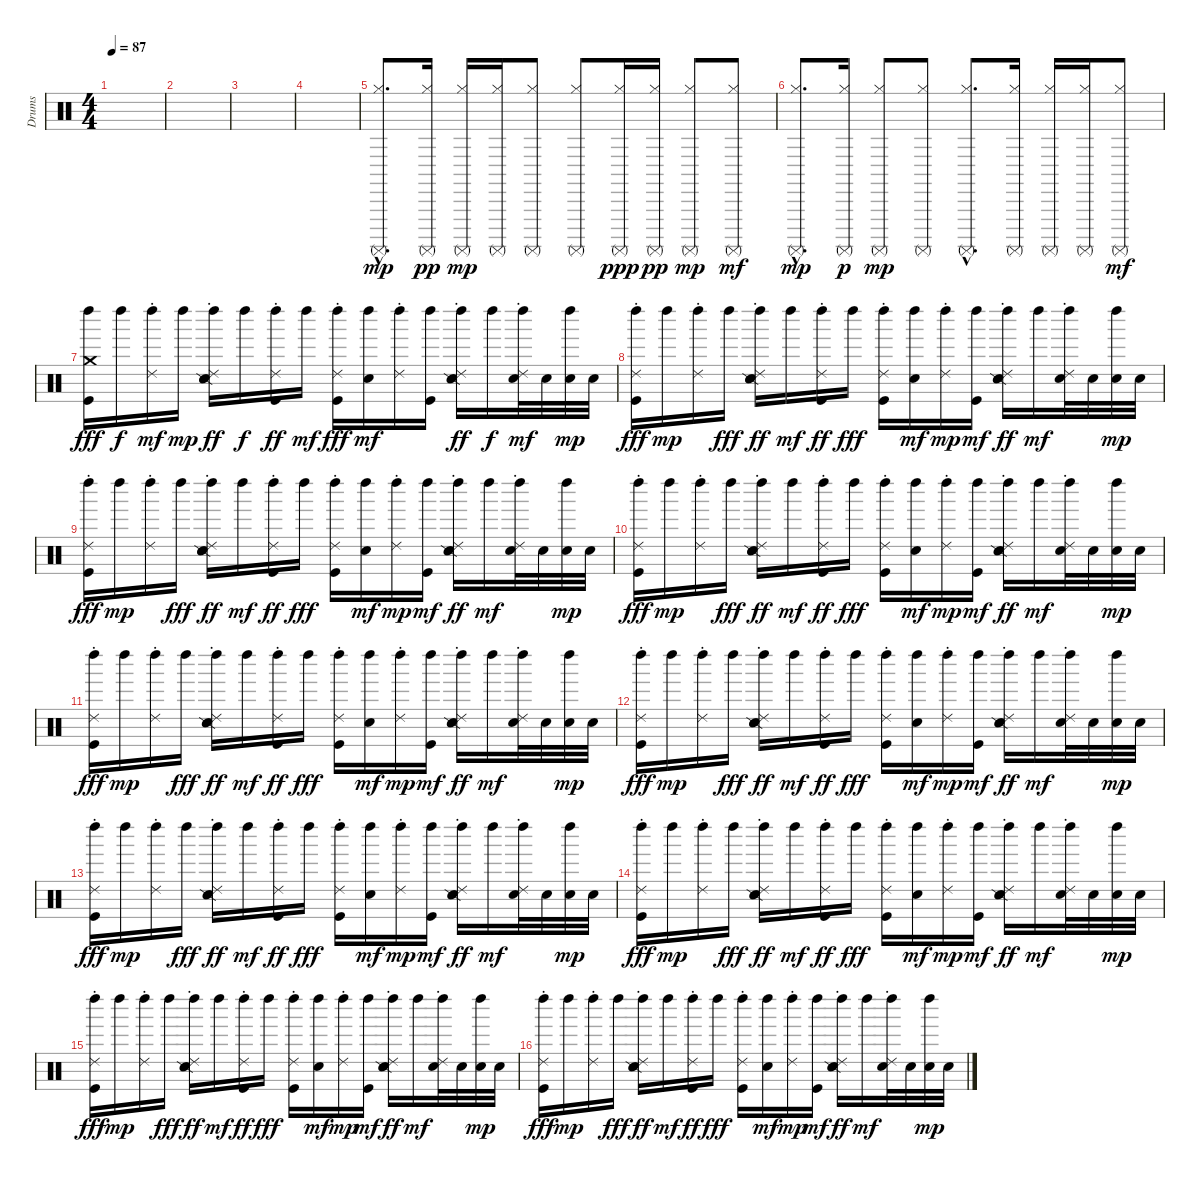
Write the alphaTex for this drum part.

\track ("Drums" "Drums") {instrument percussion}
\staff {score}
\articulation defaults
\ts (4 4)
\tempo 87
\clef neutral
\ks c
|
|
|
|
("Hi-Hat (closed)"{hac} "Surdo (mute)"{hac}).8{d dy mp} ("Hi-Hat (closed)" "Surdo (mute)").16{dy pp} ("Hi-Hat (closed)" "Surdo (mute)").16{dy mp} ("Hi-Hat (closed)" "Surdo (mute)").16 ("Hi-Hat (closed)" "Surdo (mute)").8 ("Hi-Hat (closed)" "Surdo (mute)").8 ("Hi-Hat (closed)" "Surdo (mute)").16{dy ppp} ("Hi-Hat (closed)" "Surdo (mute)").16{dy pp} ("Hi-Hat (closed)" "Surdo (mute)").8{dy mp} ("Hi-Hat (closed)" "Surdo (mute)").8{dy mf} |
("Hi-Hat (closed)"{hac} "Surdo (mute)"{hac}).8{d dy mp} ("Hi-Hat (closed)" "Surdo (mute)").16{dy p} ("Hi-Hat (closed)" "Surdo (mute)").8{dy mp} ("Hi-Hat (closed)" "Surdo (mute)").8 ("Hi-Hat (closed)"{hac} "Surdo (mute)"{hac}).8{d} ("Hi-Hat (closed)" "Surdo (mute)").16 ("Hi-Hat (closed)" "Surdo (mute)").16 ("Hi-Hat (closed)" "Surdo (mute)").16 ("Hi-Hat (closed)" "Surdo (mute)").8{dy mf} |
("Left Maraca (hit)" "Crash medium (hit)" "Kick (hit)").16{dy fff balance 11} "Left Maraca (hit)".16{dy f} ("Left Maraca (hit)" "Ride (choke) 2").16{dy mf} "Left Maraca (hit)".16{dy mp} ("Left Maraca (hit)" "Ride (choke) 2" "Snare (side stick) 2" "Electric Snare (hit)").16{dy ff} "Left Maraca (hit)".16{dy f} ("Left Maraca (hit)" "Ride (choke) 2" "Kick (hit)").16{dy ff} "Left Maraca (hit)".16{dy mf} ("Left Maraca (hit)" "Ride (choke) 2" "Kick (hit)").16{dy fff} ("Left Maraca (hit)" "Electric Snare (hit)").16{dy mf} ("Left Maraca (hit)" "Ride (choke) 2").16 ("Left Maraca (hit)" "Kick (hit)").16 ("Left Maraca (hit)" "Ride (choke) 2" "Snare (side stick) 2" "Electric Snare (hit)").16{dy ff} "Left Maraca (hit)".16{dy f} ("Left Maraca (hit)" "Ride (choke) 2" "Snare (hit) 2").32{dy mf} "Electric Snare (hit)".32 ("Left Maraca (hit)" "Snare (hit) 2").32{dy mp} "Electric Snare (hit)".32 |
("Left Maraca (hit)" "Ride (choke) 2" "Kick (hit)").16{dy fff} "Left Maraca (hit)".16{dy mp} ("Left Maraca (hit)" "Ride (choke) 2").16 "Left Maraca (hit)".16{dy fff} ("Left Maraca (hit)" "Ride (choke) 2" "Snare (side stick) 2" "Electric Snare (hit)").16{dy ff} "Left Maraca (hit)".16{dy mf} ("Left Maraca (hit)" "Ride (choke) 2" "Kick (hit)").16{dy ff} "Left Maraca (hit)".16{dy fff} ("Left Maraca (hit)" "Ride (choke) 2" "Kick (hit)").16 ("Left Maraca (hit)" "Electric Snare (hit)").16{dy mf} ("Left Maraca (hit)" "Ride (choke) 2").16{dy mp} ("Left Maraca (hit)" "Kick (hit)").16{dy mf} ("Left Maraca (hit)" "Ride (choke) 2" "Snare (side stick) 2" "Electric Snare (hit)").16{dy ff} "Left Maraca (hit)".16{dy mf} ("Left Maraca (hit)" "Ride (choke) 2" "Snare (hit) 2").32 "Electric Snare (hit)".32 ("Left Maraca (hit)" "Snare (hit) 2").32{dy mp} "Electric Snare (hit)".32 |
("Left Maraca (hit)" "Ride (choke) 2" "Kick (hit)").16{dy fff} "Left Maraca (hit)".16{dy mp} ("Left Maraca (hit)" "Ride (choke) 2").16 "Left Maraca (hit)".16{dy fff} ("Left Maraca (hit)" "Ride (choke) 2" "Snare (side stick) 2" "Electric Snare (hit)").16{dy ff} "Left Maraca (hit)".16{dy mf} ("Left Maraca (hit)" "Ride (choke) 2" "Kick (hit)").16{dy ff} "Left Maraca (hit)".16{dy fff} ("Left Maraca (hit)" "Ride (choke) 2" "Kick (hit)").16 ("Left Maraca (hit)" "Electric Snare (hit)").16{dy mf} ("Left Maraca (hit)" "Ride (choke) 2").16{dy mp} ("Left Maraca (hit)" "Kick (hit)").16{dy mf} ("Left Maraca (hit)" "Ride (choke) 2" "Snare (side stick) 2" "Electric Snare (hit)").16{dy ff} "Left Maraca (hit)".16{dy mf} ("Left Maraca (hit)" "Ride (choke) 2" "Snare (hit) 2").32 "Electric Snare (hit)".32 ("Left Maraca (hit)" "Snare (hit) 2").32{dy mp} "Electric Snare (hit)".32 |
("Left Maraca (hit)" "Ride (choke) 2" "Kick (hit)").16{dy fff} "Left Maraca (hit)".16{dy mp} ("Left Maraca (hit)" "Ride (choke) 2").16 "Left Maraca (hit)".16{dy fff} ("Left Maraca (hit)" "Ride (choke) 2" "Snare (side stick) 2" "Electric Snare (hit)").16{dy ff} "Left Maraca (hit)".16{dy mf} ("Left Maraca (hit)" "Ride (choke) 2" "Kick (hit)").16{dy ff} "Left Maraca (hit)".16{dy fff} ("Left Maraca (hit)" "Ride (choke) 2" "Kick (hit)").16 ("Left Maraca (hit)" "Electric Snare (hit)").16{dy mf} ("Left Maraca (hit)" "Ride (choke) 2").16{dy mp} ("Left Maraca (hit)" "Kick (hit)").16{dy mf} ("Left Maraca (hit)" "Ride (choke) 2" "Snare (side stick) 2" "Electric Snare (hit)").16{dy ff} "Left Maraca (hit)".16{dy mf} ("Left Maraca (hit)" "Ride (choke) 2" "Snare (hit) 2").32 "Electric Snare (hit)".32 ("Left Maraca (hit)" "Snare (hit) 2").32{dy mp} "Electric Snare (hit)".32 |
("Left Maraca (hit)" "Ride (choke) 2" "Kick (hit)").16{dy fff} "Left Maraca (hit)".16{dy mp} ("Left Maraca (hit)" "Ride (choke) 2").16 "Left Maraca (hit)".16{dy fff} ("Left Maraca (hit)" "Ride (choke) 2" "Snare (side stick) 2" "Electric Snare (hit)").16{dy ff} "Left Maraca (hit)".16{dy mf} ("Left Maraca (hit)" "Ride (choke) 2" "Kick (hit)").16{dy ff} "Left Maraca (hit)".16{dy fff} ("Left Maraca (hit)" "Ride (choke) 2" "Kick (hit)").16 ("Left Maraca (hit)" "Electric Snare (hit)").16{dy mf} ("Left Maraca (hit)" "Ride (choke) 2").16{dy mp} ("Left Maraca (hit)" "Kick (hit)").16{dy mf} ("Left Maraca (hit)" "Ride (choke) 2" "Snare (side stick) 2" "Electric Snare (hit)").16{dy ff} "Left Maraca (hit)".16{dy mf} ("Left Maraca (hit)" "Ride (choke) 2" "Snare (hit) 2").32 "Electric Snare (hit)".32 ("Left Maraca (hit)" "Snare (hit) 2").32{dy mp} "Electric Snare (hit)".32 |
("Left Maraca (hit)" "Ride (choke) 2" "Kick (hit)").16{dy fff} "Left Maraca (hit)".16{dy mp} ("Left Maraca (hit)" "Ride (choke) 2").16 "Left Maraca (hit)".16{dy fff} ("Left Maraca (hit)" "Ride (choke) 2" "Snare (side stick) 2" "Electric Snare (hit)").16{dy ff} "Left Maraca (hit)".16{dy mf} ("Left Maraca (hit)" "Ride (choke) 2" "Kick (hit)").16{dy ff} "Left Maraca (hit)".16{dy fff} ("Left Maraca (hit)" "Ride (choke) 2" "Kick (hit)").16 ("Left Maraca (hit)" "Electric Snare (hit)").16{dy mf} ("Left Maraca (hit)" "Ride (choke) 2").16{dy mp} ("Left Maraca (hit)" "Kick (hit)").16{dy mf} ("Left Maraca (hit)" "Ride (choke) 2" "Snare (side stick) 2" "Electric Snare (hit)").16{dy ff} "Left Maraca (hit)".16{dy mf} ("Left Maraca (hit)" "Ride (choke) 2" "Snare (hit) 2").32 "Electric Snare (hit)".32 ("Left Maraca (hit)" "Snare (hit) 2").32{dy mp} "Electric Snare (hit)".32 |
("Left Maraca (hit)" "Ride (choke) 2" "Kick (hit)").16{dy fff} "Left Maraca (hit)".16{dy mp} ("Left Maraca (hit)" "Ride (choke) 2").16 "Left Maraca (hit)".16{dy fff} ("Left Maraca (hit)" "Ride (choke) 2" "Snare (side stick) 2" "Electric Snare (hit)").16{dy ff} "Left Maraca (hit)".16{dy mf} ("Left Maraca (hit)" "Ride (choke) 2" "Kick (hit)").16{dy ff} "Left Maraca (hit)".16{dy fff} ("Left Maraca (hit)" "Ride (choke) 2" "Kick (hit)").16 ("Left Maraca (hit)" "Electric Snare (hit)").16{dy mf} ("Left Maraca (hit)" "Ride (choke) 2").16{dy mp} ("Left Maraca (hit)" "Kick (hit)").16{dy mf} ("Left Maraca (hit)" "Ride (choke) 2" "Snare (side stick) 2" "Electric Snare (hit)").16{dy ff} "Left Maraca (hit)".16{dy mf} ("Left Maraca (hit)" "Ride (choke) 2" "Snare (hit) 2").32 "Electric Snare (hit)".32 ("Left Maraca (hit)" "Snare (hit) 2").32{dy mp} "Electric Snare (hit)".32 |
("Left Maraca (hit)" "Ride (choke) 2" "Kick (hit)").16{dy fff} "Left Maraca (hit)".16{dy mp} ("Left Maraca (hit)" "Ride (choke) 2").16 "Left Maraca (hit)".16{dy fff} ("Left Maraca (hit)" "Ride (choke) 2" "Snare (side stick) 2" "Electric Snare (hit)").16{dy ff} "Left Maraca (hit)".16{dy mf} ("Left Maraca (hit)" "Ride (choke) 2" "Kick (hit)").16{dy ff} "Left Maraca (hit)".16{dy fff} ("Left Maraca (hit)" "Ride (choke) 2" "Kick (hit)").16 ("Left Maraca (hit)" "Electric Snare (hit)").16{dy mf} ("Left Maraca (hit)" "Ride (choke) 2").16{dy mp} ("Left Maraca (hit)" "Kick (hit)").16{dy mf} ("Left Maraca (hit)" "Ride (choke) 2" "Snare (side stick) 2" "Electric Snare (hit)").16{dy ff} "Left Maraca (hit)".16{dy mf} ("Left Maraca (hit)" "Ride (choke) 2" "Snare (hit) 2").32 "Electric Snare (hit)".32 ("Left Maraca (hit)" "Snare (hit) 2").32{dy mp} "Electric Snare (hit)".32 |
("Left Maraca (hit)" "Ride (choke) 2" "Kick (hit)").16{dy fff} "Left Maraca (hit)".16{dy mp} ("Left Maraca (hit)" "Ride (choke) 2").16 "Left Maraca (hit)".16{dy fff} ("Left Maraca (hit)" "Ride (choke) 2" "Snare (side stick) 2" "Electric Snare (hit)").16{dy ff} "Left Maraca (hit)".16{dy mf} ("Left Maraca (hit)" "Ride (choke) 2" "Kick (hit)").16{dy ff} "Left Maraca (hit)".16{dy fff} ("Left Maraca (hit)" "Ride (choke) 2" "Kick (hit)").16 ("Left Maraca (hit)" "Electric Snare (hit)").16{dy mf} ("Left Maraca (hit)" "Ride (choke) 2").16{dy mp} ("Left Maraca (hit)" "Kick (hit)").16{dy mf} ("Left Maraca (hit)" "Ride (choke) 2" "Snare (side stick) 2" "Electric Snare (hit)").16{dy ff} "Left Maraca (hit)".16{dy mf} ("Left Maraca (hit)" "Ride (choke) 2" "Snare (hit) 2").32 "Electric Snare (hit)".32 ("Left Maraca (hit)" "Snare (hit) 2").32{dy mp} "Electric Snare (hit)".32 |
("Left Maraca (hit)" "Ride (choke) 2" "Kick (hit)").16{dy fff} "Left Maraca (hit)".16{dy mp} ("Left Maraca (hit)" "Ride (choke) 2").16 "Left Maraca (hit)".16{dy fff} ("Left Maraca (hit)" "Ride (choke) 2" "Snare (side stick) 2" "Electric Snare (hit)").16{dy ff} "Left Maraca (hit)".16{dy mf} ("Left Maraca (hit)" "Ride (choke) 2" "Kick (hit)").16{dy ff} "Left Maraca (hit)".16{dy fff} ("Left Maraca (hit)" "Ride (choke) 2" "Kick (hit)").16 ("Left Maraca (hit)" "Electric Snare (hit)").16{dy mf} ("Left Maraca (hit)" "Ride (choke) 2").16{dy mp} ("Left Maraca (hit)" "Kick (hit)").16{dy mf} ("Left Maraca (hit)" "Ride (choke) 2" "Snare (side stick) 2" "Electric Snare (hit)").16{dy ff} "Left Maraca (hit)".16{dy mf} ("Left Maraca (hit)" "Ride (choke) 2" "Snare (hit) 2").32 "Electric Snare (hit)".32 ("Left Maraca (hit)" "Snare (hit) 2").32{dy mp} "Electric Snare (hit)".32
